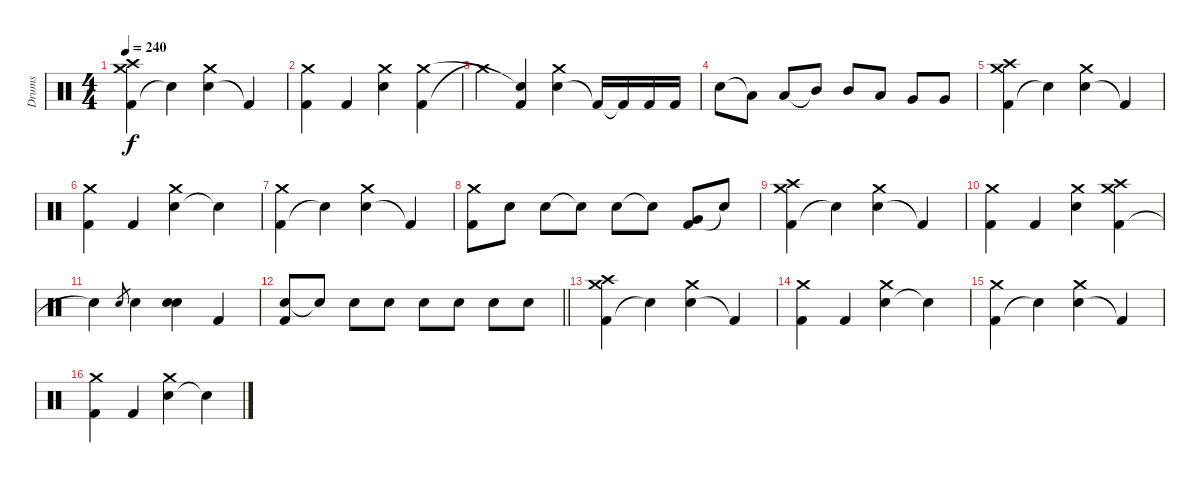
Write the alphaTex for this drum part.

\track ("Drums" "Drums") {instrument percussion}
\staff {score}
\articulation defaults
\ts (4 4)
\tempo 240
\clef neutral
\ks c
("Kick (hit) 2" "Crash medium (hit)" "Crash high (hit)").4{dy f} "Electric Snare (hit)"{t}.4 ("Electric Snare (hit)" "Crash medium (hit)").4 "Kick (hit) 2"{t}.4 |
("Kick (hit) 2" "Crash medium (hit)").4 "Kick (hit) 2".4 ("Electric Snare (hit)" "Crash medium (hit)").4 ("Kick (hit) 2" "Crash medium (hit)").4 |
"Crash medium (hit)"{t}.4 ("Kick (hit) 2" "Snare (hit)"{t}).4 ("Electric Snare (hit)" "Crash medium (hit)").4 "Kick (hit) 2"{t}.16 "Kick (hit) 2"{t}.16 "Kick (hit) 2".16 "Kick (hit) 2".16 |
"Electric Snare (hit)".8 "Low Tom (hit)"{t}.8 "Low Tom (hit)".8 "Mid Tom (hit)"{t}.8 "Mid Tom (hit)".8 "Low Tom (hit)".8 "Very Low Tom (hit)".8 "Very Low Tom (hit)".8 |
("Kick (hit) 2" "Crash medium (hit)" "Crash high (hit)").4 "Electric Snare (hit)"{t}.4 ("Electric Snare (hit)" "Crash medium (hit)").4 "Kick (hit) 2"{t}.4 |
("Kick (hit) 2" "Crash medium (hit)").4 "Kick (hit) 2".4 ("Electric Snare (hit)" "Crash medium (hit)").4 "Snare (hit)"{t}.4 |
("Kick (hit) 2" "Crash medium (hit)").4 "Electric Snare (hit)"{t}.4 ("Electric Snare (hit)" "Crash medium (hit)").4 "Kick (hit) 2"{t}.4 |
("Kick (hit) 2" "Crash medium (hit)").8 "Electric Snare (hit)".8 "Electric Snare (hit)".8 "Snare (hit)"{t}.8 "Electric Snare (hit)".8 "Snare (hit)"{t}.8 ("Kick (hit) 2" "Very Low Tom (hit)").8 "Snare (hit)"{t}.8 |
("Kick (hit) 2" "Crash medium (hit)" "Crash high (hit)").4 "Electric Snare (hit)"{t}.4 ("Electric Snare (hit)" "Crash medium (hit)").4 "Kick (hit) 2"{t}.4 |
("Kick (hit) 2" "Crash medium (hit)").4 "Kick (hit) 2".4 ("Electric Snare (hit)" "Crash medium (hit)").4 ("Kick (hit) 2" "Crash medium (hit)" "Crash high (hit)").4 |
"Snare (hit)"{t}.4 "Electric Snare (hit)".8{gr} "Electric Snare (hit)".4 ("Electric Snare (hit)" "Electric Snare (hit)").4 "Kick (hit) 2".4 |
\barLineRight lightlight
("Electric Snare (hit)" "Kick (hit) 2").8 "Snare (hit)"{t}.8 "Electric Snare (hit)".8 "Electric Snare (hit)".8 "Electric Snare (hit)".8 "Electric Snare (hit)".8 "Electric Snare (hit)".8 "Electric Snare (hit)".8 |
("Kick (hit) 2" "Crash medium (hit)" "Crash high (hit)").4 "Electric Snare (hit)"{t}.4 ("Electric Snare (hit)" "Crash medium (hit)").4 "Kick (hit) 2"{t}.4 |
("Kick (hit) 2" "Crash medium (hit)").4 "Kick (hit) 2".4 ("Electric Snare (hit)" "Crash medium (hit)").4 "Snare (hit)"{t}.4 |
("Kick (hit) 2" "Crash medium (hit)").4 "Electric Snare (hit)"{t}.4 ("Electric Snare (hit)" "Crash medium (hit)").4 "Kick (hit) 2"{t}.4 |
("Kick (hit) 2" "Crash medium (hit)").4 "Kick (hit) 2".4 ("Electric Snare (hit)" "Crash medium (hit)").4 "Snare (hit)"{t}.4
